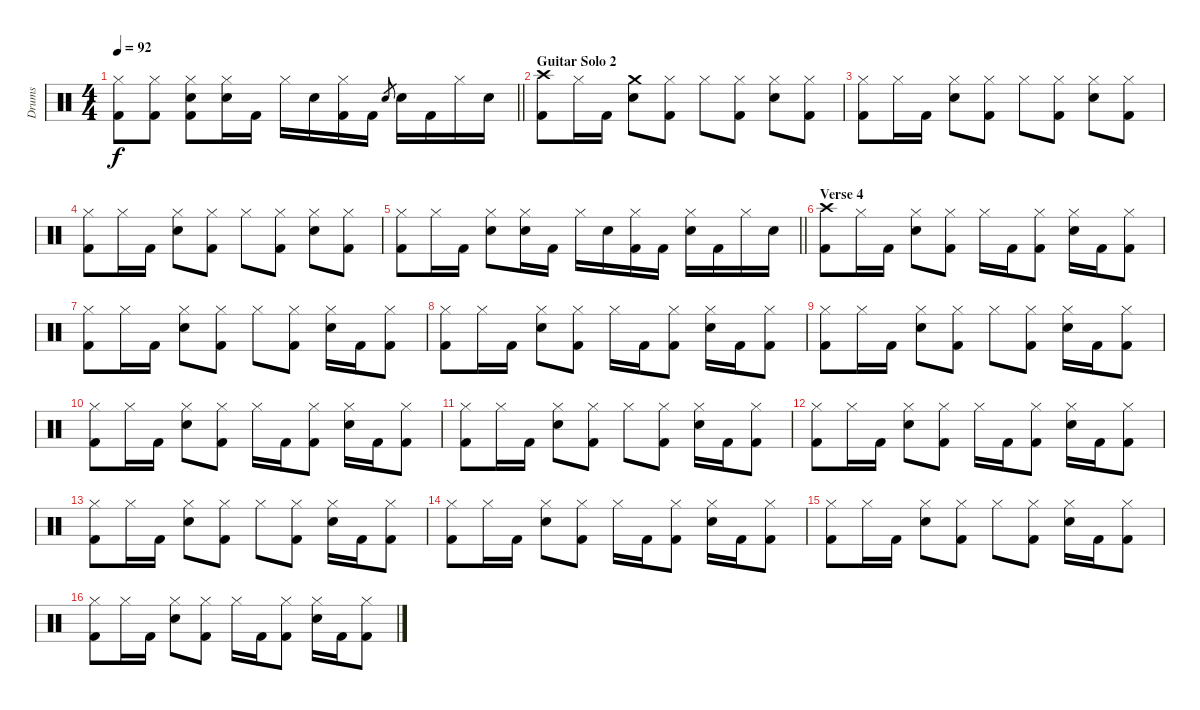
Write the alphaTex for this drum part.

\track ("Drums" "Drums") {instrument percussion}
\staff {score}
\articulation defaults
\ts (4 4)
\tempo 92
\clef neutral
\barLineRight lightlight
\ks c
("Hi-Hat (closed)" "Kick (hit) 2").8{dy f} ("Hi-Hat (closed)" "Kick (hit) 2").8 ("Hi-Hat (closed)" "Electric Snare (hit)" "Kick (hit) 2").8 ("Hi-Hat (closed)" "Electric Snare (hit)").16 "Kick (hit) 2".16 "Hi-Hat (closed)".16 "Electric Snare (hit)".16 ("Hi-Hat (closed)" "Kick (hit) 2").16 "Kick (hit) 2".16 "Electric Snare (hit)".8{gr} "Electric Snare (hit)".16 "Kick (hit) 2".16 "Hi-Hat (closed)".16 "Electric Snare (hit)".16 |
\section ("" "Guitar Solo 2")
("Crash high (hit)" "Kick (hit) 2").8 "Hi-Hat (closed)".16 "Kick (hit) 2".16 ("Crash medium (hit)" "Electric Snare (hit)").8 ("Hi-Hat (closed)" "Kick (hit) 2").8 "Hi-Hat (closed)".8 ("Hi-Hat (closed)" "Kick (hit) 2").8 ("Hi-Hat (closed)" "Electric Snare (hit)").8 ("Hi-Hat (closed)" "Kick (hit) 2").8 |
("Hi-Hat (closed)" "Kick (hit) 2").8 "Hi-Hat (closed)".16 "Kick (hit) 2".16 ("Hi-Hat (closed)" "Electric Snare (hit)").8 ("Hi-Hat (closed)" "Kick (hit) 2").8 "Hi-Hat (closed)".8 ("Hi-Hat (closed)" "Kick (hit) 2").8 ("Hi-Hat (closed)" "Electric Snare (hit)").8 ("Hi-Hat (closed)" "Kick (hit) 2").8 |
("Hi-Hat (closed)" "Kick (hit) 2").8 "Hi-Hat (closed)".16 "Kick (hit) 2".16 ("Hi-Hat (closed)" "Electric Snare (hit)").8 ("Hi-Hat (closed)" "Kick (hit) 2").8 "Hi-Hat (closed)".8 ("Hi-Hat (closed)" "Kick (hit) 2").8 ("Hi-Hat (closed)" "Electric Snare (hit)").8 ("Hi-Hat (closed)" "Kick (hit) 2").8 |
\barLineRight lightlight
("Hi-Hat (closed)" "Kick (hit) 2").8 "Hi-Hat (closed)".16 "Kick (hit) 2".16 ("Hi-Hat (closed)" "Electric Snare (hit)").8 ("Hi-Hat (closed)" "Electric Snare (hit)").16 "Kick (hit) 2".16 "Hi-Hat (closed)".16 "Electric Snare (hit)".16 ("Hi-Hat (closed)" "Kick (hit) 2").16 "Kick (hit) 2".16 ("Hi-Hat (closed)" "Electric Snare (hit)").16 "Kick (hit) 2".16 "Hi-Hat (closed)".16 "Electric Snare (hit)".16 |
\section ("" "Verse 4")
("Crash high (hit)" "Kick (hit) 2").8 "Hi-Hat (closed)".16 "Kick (hit) 2".16 ("Hi-Hat (closed)" "Electric Snare (hit)").8 ("Hi-Hat (closed)" "Kick (hit) 2").8 "Hi-Hat (closed)".16 "Kick (hit) 2".16 ("Hi-Hat (closed)" "Kick (hit) 2").8 ("Hi-Hat (closed)" "Electric Snare (hit)").16 "Kick (hit) 2".16 ("Hi-Hat (closed)" "Kick (hit) 2").8 |
("Hi-Hat (closed)" "Kick (hit) 2").8 "Hi-Hat (closed)".16 "Kick (hit) 2".16 ("Hi-Hat (closed)" "Electric Snare (hit)").8 ("Hi-Hat (closed)" "Kick (hit) 2").8 "Hi-Hat (closed)".8 ("Hi-Hat (closed)" "Kick (hit) 2").8 ("Hi-Hat (closed)" "Electric Snare (hit)").16 "Kick (hit) 2".16 ("Hi-Hat (closed)" "Kick (hit) 2").8 |
("Hi-Hat (closed)" "Kick (hit) 2").8 "Hi-Hat (closed)".16 "Kick (hit) 2".16 ("Hi-Hat (closed)" "Electric Snare (hit)").8 ("Hi-Hat (closed)" "Kick (hit) 2").8 "Hi-Hat (closed)".16 "Kick (hit) 2".16 ("Hi-Hat (closed)" "Kick (hit) 2").8 ("Hi-Hat (closed)" "Electric Snare (hit)").16 "Kick (hit) 2".16 ("Hi-Hat (closed)" "Kick (hit) 2").8 |
("Hi-Hat (closed)" "Kick (hit) 2").8 "Hi-Hat (closed)".16 "Kick (hit) 2".16 ("Hi-Hat (closed)" "Electric Snare (hit)").8 ("Hi-Hat (closed)" "Kick (hit) 2").8 "Hi-Hat (closed)".8 ("Hi-Hat (closed)" "Kick (hit) 2").8 ("Hi-Hat (closed)" "Electric Snare (hit)").16 "Kick (hit) 2".16 ("Hi-Hat (closed)" "Kick (hit) 2").8 |
("Hi-Hat (closed)" "Kick (hit) 2").8 "Hi-Hat (closed)".16 "Kick (hit) 2".16 ("Hi-Hat (closed)" "Electric Snare (hit)").8 ("Hi-Hat (closed)" "Kick (hit) 2").8 "Hi-Hat (closed)".16 "Kick (hit) 2".16 ("Hi-Hat (closed)" "Kick (hit) 2").8 ("Hi-Hat (closed)" "Electric Snare (hit)").16 "Kick (hit) 2".16 ("Hi-Hat (closed)" "Kick (hit) 2").8 |
("Hi-Hat (closed)" "Kick (hit) 2").8 "Hi-Hat (closed)".16 "Kick (hit) 2".16 ("Hi-Hat (closed)" "Electric Snare (hit)").8 ("Hi-Hat (closed)" "Kick (hit) 2").8 "Hi-Hat (closed)".8 ("Hi-Hat (closed)" "Kick (hit) 2").8 ("Hi-Hat (closed)" "Electric Snare (hit)").16 "Kick (hit) 2".16 ("Hi-Hat (closed)" "Kick (hit) 2").8 |
("Hi-Hat (closed)" "Kick (hit) 2").8 "Hi-Hat (closed)".16 "Kick (hit) 2".16 ("Hi-Hat (closed)" "Electric Snare (hit)").8 ("Hi-Hat (closed)" "Kick (hit) 2").8 "Hi-Hat (closed)".16 "Kick (hit) 2".16 ("Hi-Hat (closed)" "Kick (hit) 2").8 ("Hi-Hat (closed)" "Electric Snare (hit)").16 "Kick (hit) 2".16 ("Hi-Hat (closed)" "Kick (hit) 2").8 |
("Hi-Hat (closed)" "Kick (hit) 2").8 "Hi-Hat (closed)".16 "Kick (hit) 2".16 ("Hi-Hat (closed)" "Electric Snare (hit)").8 ("Hi-Hat (closed)" "Kick (hit) 2").8 "Hi-Hat (closed)".8 ("Hi-Hat (closed)" "Kick (hit) 2").8 ("Hi-Hat (closed)" "Electric Snare (hit)").16 "Kick (hit) 2".16 ("Hi-Hat (closed)" "Kick (hit) 2").8 |
("Hi-Hat (closed)" "Kick (hit) 2").8 "Hi-Hat (closed)".16 "Kick (hit) 2".16 ("Hi-Hat (closed)" "Electric Snare (hit)").8 ("Hi-Hat (closed)" "Kick (hit) 2").8 "Hi-Hat (closed)".16 "Kick (hit) 2".16 ("Hi-Hat (closed)" "Kick (hit) 2").8 ("Hi-Hat (closed)" "Electric Snare (hit)").16 "Kick (hit) 2".16 ("Hi-Hat (closed)" "Kick (hit) 2").8 |
("Hi-Hat (closed)" "Kick (hit) 2").8 "Hi-Hat (closed)".16 "Kick (hit) 2".16 ("Hi-Hat (closed)" "Electric Snare (hit)").8 ("Hi-Hat (closed)" "Kick (hit) 2").8 "Hi-Hat (closed)".8 ("Hi-Hat (closed)" "Kick (hit) 2").8 ("Hi-Hat (closed)" "Electric Snare (hit)").16 "Kick (hit) 2".16 ("Hi-Hat (closed)" "Kick (hit) 2").8 |
("Hi-Hat (closed)" "Kick (hit) 2").8 "Hi-Hat (closed)".16 "Kick (hit) 2".16 ("Hi-Hat (closed)" "Electric Snare (hit)").8 ("Hi-Hat (closed)" "Kick (hit) 2").8 "Hi-Hat (closed)".16 "Kick (hit) 2".16 ("Hi-Hat (closed)" "Kick (hit) 2").8 ("Hi-Hat (closed)" "Electric Snare (hit)").16 "Kick (hit) 2".16 ("Hi-Hat (closed)" "Kick (hit) 2").8
